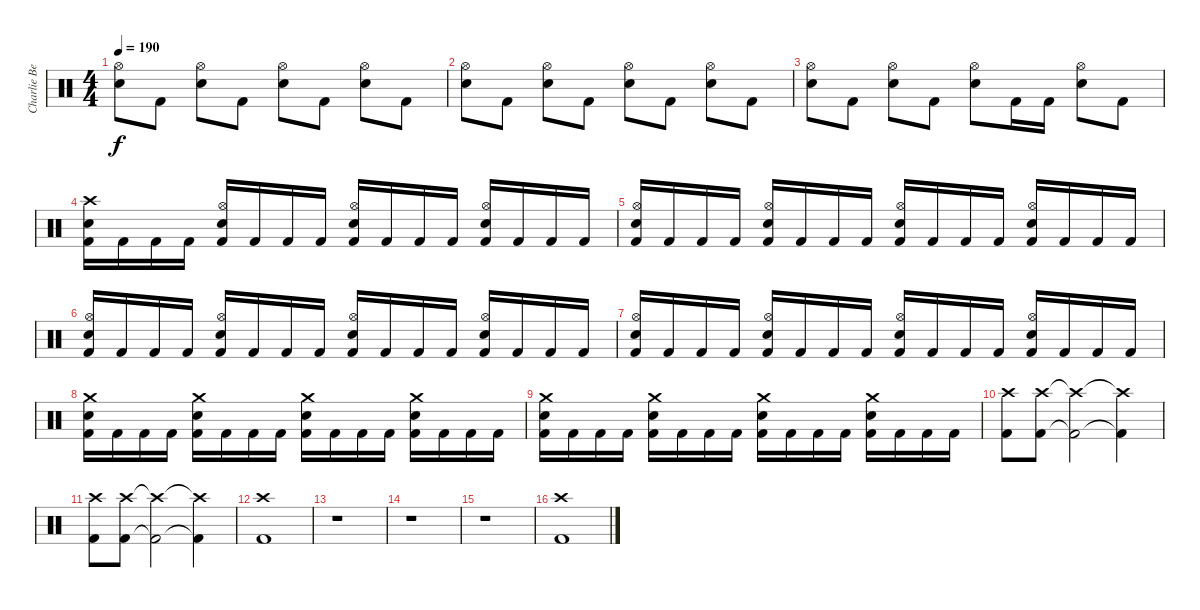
\track ("Charlie Benante" "Charlie Be") {instrument percussion}
\staff {score}
\articulation defaults
\ts (4 4)
\tempo 190
\clef neutral
\ks c
("Snare (hit) 2" "Hi-Hat (open)").8{dy f} "Kick (hit) 2".8 ("Snare (hit) 2" "Hi-Hat (open)").8 "Kick (hit) 2".8 ("Snare (hit) 2" "Hi-Hat (open)").8 "Kick (hit) 2".8 ("Snare (hit) 2" "Hi-Hat (open)").8 "Kick (hit) 2".8 |
("Snare (hit) 2" "Hi-Hat (open)").8 "Kick (hit) 2".8 ("Snare (hit) 2" "Hi-Hat (open)").8 "Kick (hit) 2".8 ("Snare (hit) 2" "Hi-Hat (open)").8 "Kick (hit) 2".8 ("Snare (hit) 2" "Hi-Hat (open)").8 "Kick (hit) 2".8 |
("Snare (hit) 2" "Hi-Hat (open)").8 "Kick (hit) 2".8 ("Snare (hit) 2" "Hi-Hat (open)").8 "Kick (hit) 2".8 ("Snare (hit) 2" "Hi-Hat (open)").8 "Kick (hit) 2".16 "Kick (hit) 2".16 ("Snare (hit) 2" "Hi-Hat (open)").8 "Kick (hit) 2".8 |
("Snare (hit) 2" "Crash high (hit)" "Kick (hit) 2").16 "Kick (hit) 2".16 "Kick (hit) 2".16 "Kick (hit) 2".16 ("Snare (hit) 2" "Hi-Hat (open)" "Kick (hit) 2").16 "Kick (hit) 2".16 "Kick (hit) 2".16 "Kick (hit) 2".16 ("Snare (hit) 2" "Hi-Hat (open)" "Kick (hit) 2").16 "Kick (hit) 2".16 "Kick (hit) 2".16 "Kick (hit) 2".16 ("Snare (hit) 2" "Hi-Hat (open)" "Kick (hit) 2").16 "Kick (hit) 2".16 "Kick (hit) 2".16 "Kick (hit) 2".16 |
("Snare (hit) 2" "Hi-Hat (open)" "Kick (hit) 2").16 "Kick (hit) 2".16 "Kick (hit) 2".16 "Kick (hit) 2".16 ("Snare (hit) 2" "Hi-Hat (open)" "Kick (hit) 2").16 "Kick (hit) 2".16 "Kick (hit) 2".16 "Kick (hit) 2".16 ("Snare (hit) 2" "Hi-Hat (open)" "Kick (hit) 2").16 "Kick (hit) 2".16 "Kick (hit) 2".16 "Kick (hit) 2".16 ("Snare (hit) 2" "Hi-Hat (open)" "Kick (hit) 2").16 "Kick (hit) 2".16 "Kick (hit) 2".16 "Kick (hit) 2".16 |
("Snare (hit) 2" "Hi-Hat (open)" "Kick (hit) 2").16 "Kick (hit) 2".16 "Kick (hit) 2".16 "Kick (hit) 2".16 ("Snare (hit) 2" "Hi-Hat (open)" "Kick (hit) 2").16 "Kick (hit) 2".16 "Kick (hit) 2".16 "Kick (hit) 2".16 ("Snare (hit) 2" "Hi-Hat (open)" "Kick (hit) 2").16 "Kick (hit) 2".16 "Kick (hit) 2".16 "Kick (hit) 2".16 ("Snare (hit) 2" "Hi-Hat (open)" "Kick (hit) 2").16 "Kick (hit) 2".16 "Kick (hit) 2".16 "Kick (hit) 2".16 |
("Snare (hit) 2" "Hi-Hat (open)" "Kick (hit) 2").16 "Kick (hit) 2".16 "Kick (hit) 2".16 "Kick (hit) 2".16 ("Snare (hit) 2" "Hi-Hat (open)" "Kick (hit) 2").16 "Kick (hit) 2".16 "Kick (hit) 2".16 "Kick (hit) 2".16 ("Snare (hit) 2" "Hi-Hat (open)" "Kick (hit) 2").16 "Kick (hit) 2".16 "Kick (hit) 2".16 "Kick (hit) 2".16 ("Snare (hit) 2" "Hi-Hat (open)" "Kick (hit) 2").16 "Kick (hit) 2".16 "Kick (hit) 2".16 "Kick (hit) 2".16 |
("Snare (hit) 2" "Crash medium (hit)" "Kick (hit) 2").16 "Kick (hit) 2".16 "Kick (hit) 2".16 "Kick (hit) 2".16 ("Snare (hit) 2" "Crash medium (hit)" "Kick (hit) 2").16 "Kick (hit) 2".16 "Kick (hit) 2".16 "Kick (hit) 2".16 ("Snare (hit) 2" "Crash medium (hit)" "Kick (hit) 2").16 "Kick (hit) 2".16 "Kick (hit) 2".16 "Kick (hit) 2".16 ("Snare (hit) 2" "Crash medium (hit)" "Kick (hit) 2").16 "Kick (hit) 2".16 "Kick (hit) 2".16 "Kick (hit) 2".16 |
("Snare (hit) 2" "Crash medium (hit)" "Kick (hit) 2").16 "Kick (hit) 2".16 "Kick (hit) 2".16 "Kick (hit) 2".16 ("Snare (hit) 2" "Crash medium (hit)" "Kick (hit) 2").16 "Kick (hit) 2".16 "Kick (hit) 2".16 "Kick (hit) 2".16 ("Snare (hit) 2" "Crash medium (hit)" "Kick (hit) 2").16 "Kick (hit) 2".16 "Kick (hit) 2".16 "Kick (hit) 2".16 ("Snare (hit) 2" "Crash medium (hit)" "Kick (hit) 2").16 "Kick (hit) 2".16 "Kick (hit) 2".16 "Kick (hit) 2".16 |
("Crash high (hit)" "Kick (hit) 2").8 ("Crash high (hit)" "Kick (hit) 2").8 ("Crash high (hit)"{t} "Kick (hit) 2"{t}).2 ("Crash high (hit)"{t} "Kick (hit) 2"{t}).4 |
("Crash high (hit)" "Kick (hit) 2").8 ("Crash high (hit)" "Kick (hit) 2").8 ("Crash high (hit)"{t} "Kick (hit) 2"{t}).2 ("Crash high (hit)"{t} "Kick (hit) 2"{t}).4 |
("Crash high (hit)" "Kick (hit) 2").1 |
r.1 |
r.1 |
r.1 |
("Crash high (hit)" "Kick (hit) 2").1
